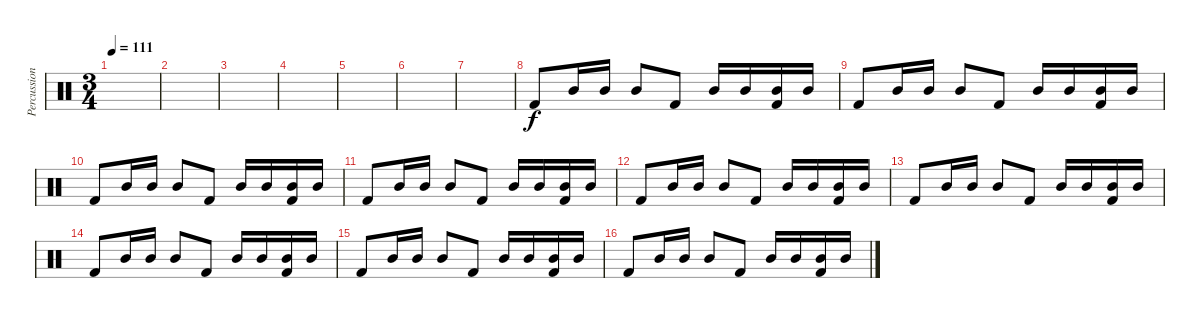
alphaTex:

\track ("Percussion" "Percussion") {instrument percussion}
\staff {score}
\articulation defaults
\ts (3 4)
\tempo 111
\clef neutral
\ks c
|
|
|
|
|
|
|
"Kick (hit) 2".8{volume 4} "Mid Tom (hit)".16{volume 8} "Mid Tom (hit)".16 "Mid Tom (hit)".8 "Kick (hit) 2".8 "Mid Tom (hit)".16 "Mid Tom (hit)".16 ("Mid Tom (hit)" "Kick (hit) 2").16 "Mid Tom (hit)".16 |
"Kick (hit) 2".8 "Mid Tom (hit)".16 "Mid Tom (hit)".16 "Mid Tom (hit)".8 "Kick (hit) 2".8 "Mid Tom (hit)".16 "Mid Tom (hit)".16 ("Mid Tom (hit)" "Kick (hit) 2").16 "Mid Tom (hit)".16 |
"Kick (hit) 2".8 "Mid Tom (hit)".16 "Mid Tom (hit)".16 "Mid Tom (hit)".8 "Kick (hit) 2".8 "Mid Tom (hit)".16 "Mid Tom (hit)".16 ("Mid Tom (hit)" "Kick (hit) 2").16 "Mid Tom (hit)".16 |
"Kick (hit) 2".8 "Mid Tom (hit)".16 "Mid Tom (hit)".16 "Mid Tom (hit)".8 "Kick (hit) 2".8 "Mid Tom (hit)".16 "Mid Tom (hit)".16 ("Mid Tom (hit)" "Kick (hit) 2").16 "Mid Tom (hit)".16 |
"Kick (hit) 2".8 "Mid Tom (hit)".16 "Mid Tom (hit)".16 "Mid Tom (hit)".8 "Kick (hit) 2".8 "Mid Tom (hit)".16 "Mid Tom (hit)".16 ("Mid Tom (hit)" "Kick (hit) 2").16 "Mid Tom (hit)".16 |
"Kick (hit) 2".8 "Mid Tom (hit)".16 "Mid Tom (hit)".16 "Mid Tom (hit)".8 "Kick (hit) 2".8 "Mid Tom (hit)".16{volume 10} "Mid Tom (hit)".16 ("Mid Tom (hit)" "Kick (hit) 2").16 "Mid Tom (hit)".16 |
"Kick (hit) 2".8 "Mid Tom (hit)".16 "Mid Tom (hit)".16 "Mid Tom (hit)".8 "Kick (hit) 2".8 "Mid Tom (hit)".16 "Mid Tom (hit)".16 ("Mid Tom (hit)" "Kick (hit) 2").16 "Mid Tom (hit)".16 |
"Kick (hit) 2".8 "Mid Tom (hit)".16 "Mid Tom (hit)".16 "Mid Tom (hit)".8 "Kick (hit) 2".8 "Mid Tom (hit)".16 "Mid Tom (hit)".16 ("Mid Tom (hit)" "Kick (hit) 2").16 "Mid Tom (hit)".16 |
"Kick (hit) 2".8 "Mid Tom (hit)".16 "Mid Tom (hit)".16 "Mid Tom (hit)".8 "Kick (hit) 2".8 "Mid Tom (hit)".16 "Mid Tom (hit)".16 ("Mid Tom (hit)" "Kick (hit) 2").16 "Mid Tom (hit)".16
